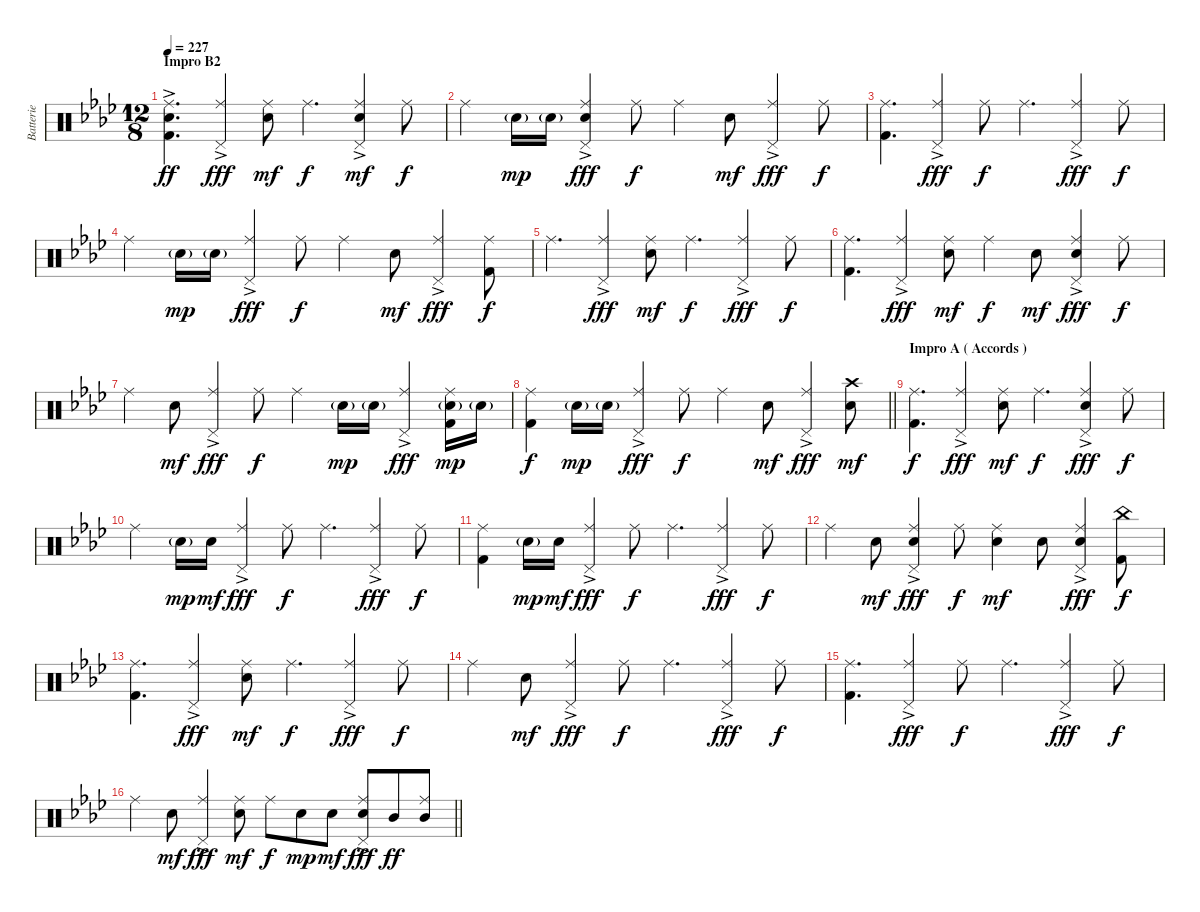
\track ("Batterie" "Batterie") {instrument percussion}
\staff {score}
\articulation defaults
\ts (12 8)
\section ("" "Impro B2")
\tempo 227
\clef neutral
\ks fminor
("Ride (middle)" "Snare (hit) 2"{ac} "Kick (hit) 2").4{d dy ff volume 12 balance 8} ("Ride (middle)" "Pedal Hi-Hat (hit)"{ac}).4{dy fff} ("Ride (middle)" "Snare (hit) 2").8{dy mf} "Ride (middle)".4{d dy f} ("Ride (middle)" "Pedal Hi-Hat (hit)"{ac} "Snare (hit) 2").4{dy mf} "Ride (middle)".8{dy f} |
"Ride (middle)".4 "Snare (hit) 2"{g}.16{dy mp} "Snare (hit) 2"{g}.16 ("Ride (middle)" "Pedal Hi-Hat (hit)"{ac} "Snare (hit) 2"{ac}).4{dy fff} "Ride (middle)".8{dy f} "Ride (middle)".4 "Snare (hit) 2".8{dy mf} ("Ride (middle)" "Pedal Hi-Hat (hit)"{ac}).4{dy fff} "Ride (middle)".8{dy f} |
("Ride (middle)" "Kick (hit) 2").4{d} ("Ride (middle)" "Pedal Hi-Hat (hit)"{ac}).4{dy fff} "Ride (middle)".8{dy f} "Ride (middle)".4{d} ("Ride (middle)" "Pedal Hi-Hat (hit)"{ac}).4{dy fff} "Ride (middle)".8{dy f} |
"Ride (middle)".4 "Snare (hit) 2"{g}.16{dy mp} "Snare (hit) 2"{g}.16 ("Ride (middle)" "Pedal Hi-Hat (hit)"{ac}).4{dy fff} "Ride (middle)".8{dy f} "Ride (middle)".4 "Snare (hit) 2".8{dy mf} ("Ride (middle)" "Pedal Hi-Hat (hit)"{ac}).4{dy fff} ("Ride (middle)" "Kick (hit) 2").8{dy f} |
"Ride (middle)".4{d} ("Ride (middle)" "Pedal Hi-Hat (hit)"{ac}).4{dy fff} ("Ride (middle)" "Snare (hit) 2").8{dy mf} "Ride (middle)".4{d dy f} ("Ride (middle)" "Pedal Hi-Hat (hit)"{ac}).4{dy fff} "Ride (middle)".8{dy f} |
("Ride (middle)" "Kick (hit) 2").4{d} ("Ride (middle)" "Pedal Hi-Hat (hit)"{ac}).4{dy fff} ("Ride (middle)" "Snare (hit) 2").8{dy mf} "Ride (middle)".4{dy f} "Snare (hit) 2".8{dy mf} ("Ride (middle)" "Pedal Hi-Hat (hit)"{ac} "Snare (hit) 2").4{dy fff} "Ride (middle)".8{dy f} |
"Ride (middle)".4 "Snare (hit) 2".8{dy mf} ("Ride (middle)" "Pedal Hi-Hat (hit)"{ac}).4{dy fff} "Ride (middle)".8{dy f} "Ride (middle)".4 "Snare (hit) 2"{g}.16{dy mp} "Snare (hit) 2"{g}.16 ("Ride (middle)" "Pedal Hi-Hat (hit)"{ac}).4{dy fff} ("Ride (middle)" "Snare (hit) 2"{g} "Kick (hit) 2").16{dy mp} "Snare (hit) 2"{g}.16 |
\barLineRight lightlight
("Ride (middle)" "Kick (hit) 2").4{dy f} "Snare (hit) 2"{g}.16{dy mp} "Snare (hit) 2"{g}.16 ("Ride (middle)" "Pedal Hi-Hat (hit)"{ac}).4{dy fff} "Ride (middle)".8{dy f} "Ride (middle)".4 "Snare (hit) 2".8{dy mf} ("Ride (middle)" "Pedal Hi-Hat (hit)"{ac}).4{dy fff} ("Crash high (hit)" "Snare (hit) 2").8{dy mf} |
\section ("" "Impro A ( Accords )")
("Ride (middle)" "Kick (hit) 2").4{d dy f volume 12 balance 8} ("Ride (middle)" "Pedal Hi-Hat (hit)"{ac}).4{dy fff} ("Ride (middle)" "Snare (hit) 2").8{dy mf} "Ride (middle)".4{d dy f} ("Ride (middle)" "Pedal Hi-Hat (hit)"{ac} "Snare (hit) 2").4{dy fff} "Ride (middle)".8{dy f} |
"Ride (middle)".4 "Snare (hit) 2"{g}.16{dy mp} "Snare (hit) 2".16{dy mf} ("Ride (middle)" "Pedal Hi-Hat (hit)"{ac}).4{dy fff} "Ride (middle)".8{dy f} "Ride (middle)".4{d} ("Ride (middle)" "Pedal Hi-Hat (hit)"{ac}).4{dy fff} "Ride (middle)".8{dy f} |
("Ride (middle)" "Kick (hit) 2").4 "Snare (hit) 2"{g}.16{dy mp} "Snare (hit) 2".16{dy mf} ("Ride (middle)" "Pedal Hi-Hat (hit)"{ac}).4{dy fff} "Ride (middle)".8{dy f} "Ride (middle)".4{d} ("Ride (middle)" "Pedal Hi-Hat (hit)"{ac}).4{dy fff} "Ride (middle)".8{dy f} |
"Ride (middle)".4 "Snare (hit) 2".8{dy mf} ("Ride (middle)" "Pedal Hi-Hat (hit)"{ac} "Snare (hit) 2").4{dy fff} "Ride (middle)".8{dy f} ("Ride (middle)" "Snare (hit) 2").4{dy mf} "Snare (hit) 2".8 ("Ride (middle)" "Pedal Hi-Hat (hit)"{ac} "Snare (hit) 2").4{dy fff} ("China (hit)" "Kick (hit) 2").8{dy f} |
("Ride (middle)" "Kick (hit) 2").4{d} ("Ride (middle)" "Pedal Hi-Hat (hit)"{ac}).4{dy fff} ("Ride (middle)" "Snare (hit) 2").8{dy mf} "Ride (middle)".4{d dy f} ("Ride (middle)" "Pedal Hi-Hat (hit)"{ac}).4{dy fff} "Ride (middle)".8{dy f} |
"Ride (middle)".4 "Snare (hit) 2".8{dy mf} ("Ride (middle)" "Pedal Hi-Hat (hit)"{ac}).4{dy fff} "Ride (middle)".8{dy f} "Ride (middle)".4{d} ("Ride (middle)" "Pedal Hi-Hat (hit)"{ac}).4{dy fff} "Ride (middle)".8{dy f} |
("Ride (middle)" "Kick (hit) 2").4{d} ("Ride (middle)" "Pedal Hi-Hat (hit)"{ac}).4{dy fff} "Ride (middle)".8{dy f} "Ride (middle)".4{d} ("Ride (middle)" "Pedal Hi-Hat (hit)"{ac}).4{dy fff} "Ride (middle)".8{dy f} |
\barLineRight lightlight "Ride (middle)".4 "Snare (hit) 2".8{dy mf}
("Ride (middle)" "Pedal Hi-Hat (hit)"{ac}).4{dy fff} ("Ride (middle)" "Snare (hit) 2").8{dy mf} "Ride (middle)".8{dy f} "Snare (hit) 2".8{dy mp} "Snare (hit) 2".8{dy mf} ("Ride (middle)" "Pedal Hi-Hat (hit)"{ac} "Snare (hit) 2").8{dy fff} "Mid Tom (hit)".8{dy ff} ("Ride (middle)" "Mid Tom (hit)").8
